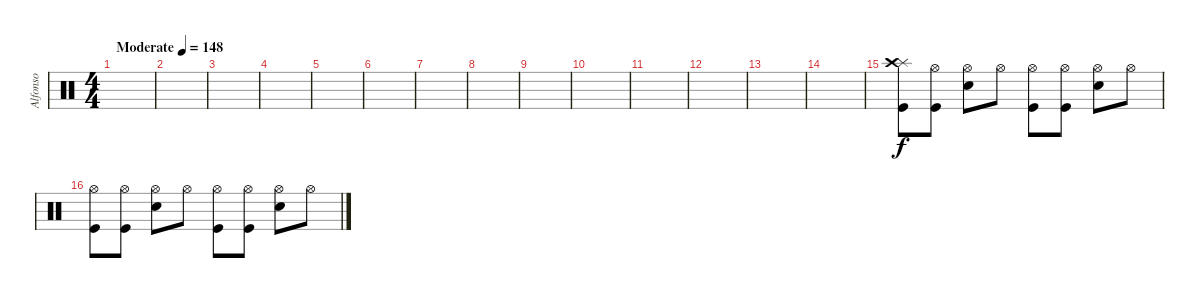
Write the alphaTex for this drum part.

\track ("Alfonso" "Alfonso") {instrument percussion}
\staff {score}
\articulation defaults
\ts (4 4)
\tempo (148 "Moderate")
\clef neutral
\ks c
|
|
|
|
|
|
|
|
|
|
|
|
|
|
("Kick (hit)" "Splash (hit)" "Crash high (hit)").8 ("Kick (hit)" "Hi-Hat (open)").8 ("Snare (hit) 2" "Hi-Hat (open)").8 "Hi-Hat (open)".8 ("Kick (hit)" "Hi-Hat (open)").8 ("Kick (hit)" "Hi-Hat (open)").8 ("Snare (hit) 2" "Hi-Hat (open)").8 "Hi-Hat (open)".8 |
("Kick (hit)" "Hi-Hat (open)").8 ("Kick (hit)" "Hi-Hat (open)").8 ("Snare (hit) 2" "Hi-Hat (open)").8 "Hi-Hat (open)".8 ("Kick (hit)" "Hi-Hat (open)").8 ("Kick (hit)" "Hi-Hat (open)").8 ("Snare (hit) 2" "Hi-Hat (open)").8 "Hi-Hat (open)".8
